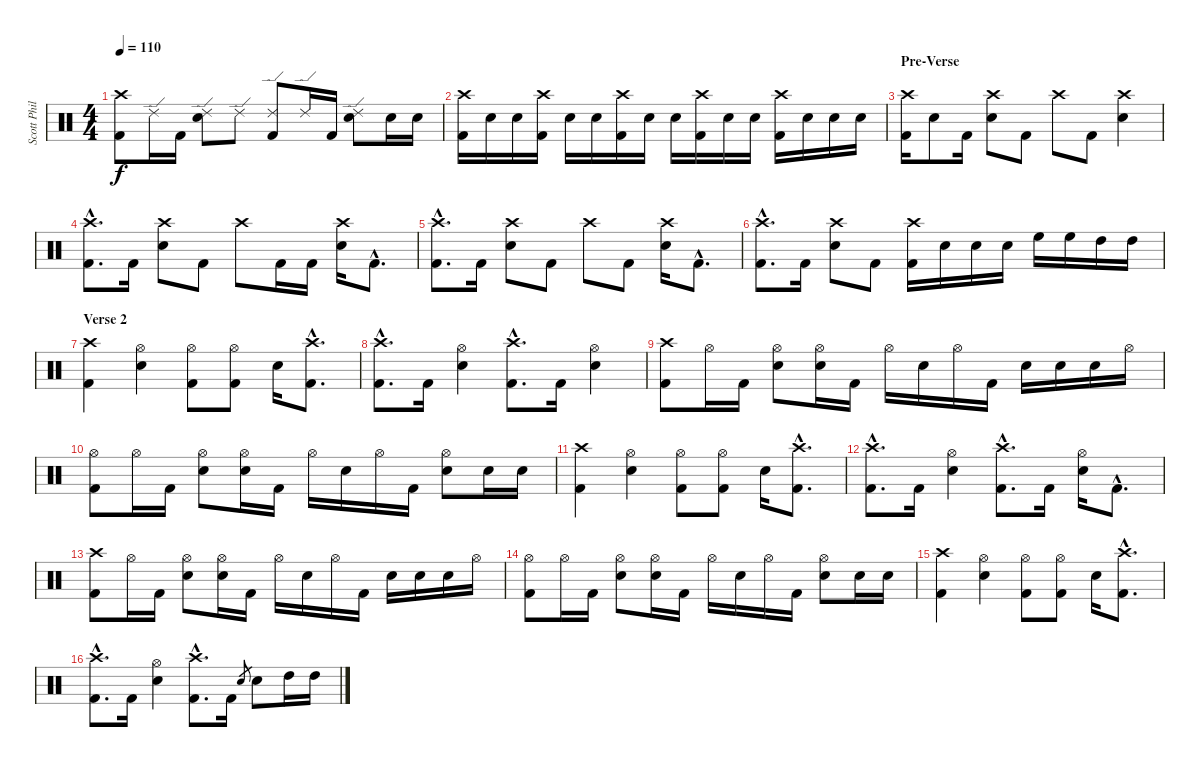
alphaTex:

\track ("Scott Phillips" "Scott Phil") {instrument percussion}
\staff {score}
\articulation defaults
\ts (4 4)
\tempo 110
\clef neutral
\ks c
("Crash high (hit)" "Kick (hit) 2").8{dy f} "Ride (edge) 2".16 "Kick (hit) 2".16 ("Ride (edge) 2" "Snare (hit) 2").8 "Ride (edge) 2".8 ("Ride (edge) 2" "Kick (hit) 2").8 "Ride (edge) 2".16 "Kick (hit) 2".16 ("Ride (edge) 2" "Snare (hit) 2").8 "Snare (hit) 2".16 "Snare (hit) 2".16 |
("Crash high (hit)" "Kick (hit) 2").16 "Snare (hit) 2".16 "Snare (hit) 2".16 ("Crash high (hit)" "Kick (hit) 2").16 "Snare (hit) 2".16 "Snare (hit) 2".16 ("Crash high (hit)" "Kick (hit) 2").16 "Snare (hit) 2".16 "Snare (hit) 2".16 ("Crash high (hit)" "Kick (hit) 2").16 "Snare (hit) 2".16 "Snare (hit) 2".16 ("Crash high (hit)" "Kick (hit) 2").16 "Snare (hit) 2".16 "Snare (hit) 2".16 "Snare (hit) 2".16 |
\section ("" "Pre-Verse")
("Crash high (hit)" "Kick (hit) 2").16 "Snare (hit) 2".8 "Kick (hit) 2".16 ("Crash high (hit)" "Snare (hit) 2").8 "Kick (hit) 2".8 "Crash high (hit)".8 "Kick (hit) 2".8 ("Crash high (hit)" "Snare (hit) 2").4 |
("Crash high (hit)"{hac} "Kick (hit) 2"{hac}).8{d} "Kick (hit) 2".16 ("Crash high (hit)" "Snare (hit) 2").8 "Kick (hit) 2".8 "Crash high (hit)".8 "Kick (hit) 2".16 "Kick (hit) 2".16 ("Crash high (hit)" "Snare (hit) 2").16 "Kick (hit) 2"{hac}.8{d} |
("Crash high (hit)"{hac} "Kick (hit) 2"{hac}).8{d} "Kick (hit) 2".16 ("Crash high (hit)" "Snare (hit) 2").8 "Kick (hit) 2".8 "Crash high (hit)".8 "Kick (hit) 2".8 ("Crash high (hit)" "Snare (hit) 2").16 "Kick (hit) 2"{hac}.8{d} |
("Crash high (hit)"{hac} "Kick (hit) 2"{hac}).8{d} "Kick (hit) 2".16 ("Crash high (hit)" "Snare (hit) 2").8 "Kick (hit) 2".8 ("Crash high (hit)" "Kick (hit) 2").16 "Snare (hit) 2".16 "Snare (hit) 2".16 "Snare (hit) 2".16 "High Floor Tom (hit)".16 "High Floor Tom (hit)".16 "High Tom (hit)".16 "High Tom (hit)".16 |
\section ("" "Verse 2")
("Crash high (hit)" "Kick (hit) 2").4 ("Hi-Hat (open)" "Snare (hit) 2").4 ("Hi-Hat (open)" "Kick (hit) 2").8 ("Hi-Hat (open)" "Kick (hit) 2").8 "Snare (hit) 2".16 ("Crash high (hit)"{hac} "Kick (hit) 2"{hac}).8{d} |
("Crash high (hit)"{hac} "Kick (hit) 2"{hac}).8{d} "Kick (hit) 2".16 ("Hi-Hat (open)" "Snare (hit) 2").4 ("Crash high (hit)"{hac} "Kick (hit) 2"{hac}).8{d} "Kick (hit) 2".16 ("Hi-Hat (open)" "Snare (hit) 2").4 |
("Crash high (hit)" "Kick (hit) 2").8 "Hi-Hat (open)".16 "Kick (hit) 2".16 ("Hi-Hat (open)" "Snare (hit) 2").8 ("Hi-Hat (open)" "Snare (hit) 2").16 "Kick (hit) 2".16 "Hi-Hat (open)".16 "Snare (hit) 2".16 "Hi-Hat (open)".16 "Kick (hit) 2".16 "Snare (hit) 2".16 "Snare (hit) 2".16 "Snare (hit) 2".16 "Hi-Hat (open)".16 |
("Hi-Hat (open)" "Kick (hit) 2").8 "Hi-Hat (open)".16 "Kick (hit) 2".16 ("Hi-Hat (open)" "Snare (hit) 2").8 ("Hi-Hat (open)" "Snare (hit) 2").16 "Kick (hit) 2".16 "Hi-Hat (open)".16 "Snare (hit) 2".16 "Hi-Hat (open)".16 "Kick (hit) 2".16 ("Hi-Hat (open)" "Snare (hit) 2").8 "Snare (hit) 2".16 "Snare (hit) 2".16 |
("Crash high (hit)" "Kick (hit) 2").4 ("Hi-Hat (open)" "Snare (hit) 2").4 ("Hi-Hat (open)" "Kick (hit) 2").8 ("Hi-Hat (open)" "Kick (hit) 2").8 "Snare (hit) 2".16 ("Crash high (hit)"{hac} "Kick (hit) 2"{hac}).8{d} |
("Crash high (hit)"{hac} "Kick (hit) 2"{hac}).8{d} "Kick (hit) 2".16 ("Hi-Hat (open)" "Snare (hit) 2").4 ("Crash high (hit)"{hac} "Kick (hit) 2"{hac}).8{d} "Kick (hit) 2".16 ("Hi-Hat (open)" "Snare (hit) 2").16 "Kick (hit) 2"{hac}.8{d} |
("Crash high (hit)" "Kick (hit) 2").8 "Hi-Hat (open)".16 "Kick (hit) 2".16 ("Hi-Hat (open)" "Snare (hit) 2").8 ("Hi-Hat (open)" "Snare (hit) 2").16 "Kick (hit) 2".16 "Hi-Hat (open)".16 "Snare (hit) 2".16 "Hi-Hat (open)".16 "Kick (hit) 2".16 "Snare (hit) 2".16 "Snare (hit) 2".16 "Snare (hit) 2".16 "Hi-Hat (open)".16 |
("Hi-Hat (open)" "Kick (hit) 2").8 "Hi-Hat (open)".16 "Kick (hit) 2".16 ("Hi-Hat (open)" "Snare (hit) 2").8 ("Hi-Hat (open)" "Snare (hit) 2").16 "Kick (hit) 2".16 "Hi-Hat (open)".16 "Snare (hit) 2".16 "Hi-Hat (open)".16 "Kick (hit) 2".16 ("Hi-Hat (open)" "Snare (hit) 2").8 "Snare (hit) 2".16 "Snare (hit) 2".16 |
("Crash high (hit)" "Kick (hit) 2").4 ("Hi-Hat (open)" "Snare (hit) 2").4 ("Hi-Hat (open)" "Kick (hit) 2").8 ("Hi-Hat (open)" "Kick (hit) 2").8 "Snare (hit) 2".16 ("Crash high (hit)"{hac} "Kick (hit) 2"{hac}).8{d} |
("Crash high (hit)"{hac} "Kick (hit) 2"{hac}).8{d} "Kick (hit) 2".16 ("Hi-Hat (open)" "Snare (hit) 2").4 ("Crash high (hit)"{hac} "Kick (hit) 2"{hac}).8{d} "Kick (hit) 2".16 "Snare (hit) 2".8{gr} "Snare (hit) 2".8 "High Tom (hit)".16 "High Tom (hit)".16
